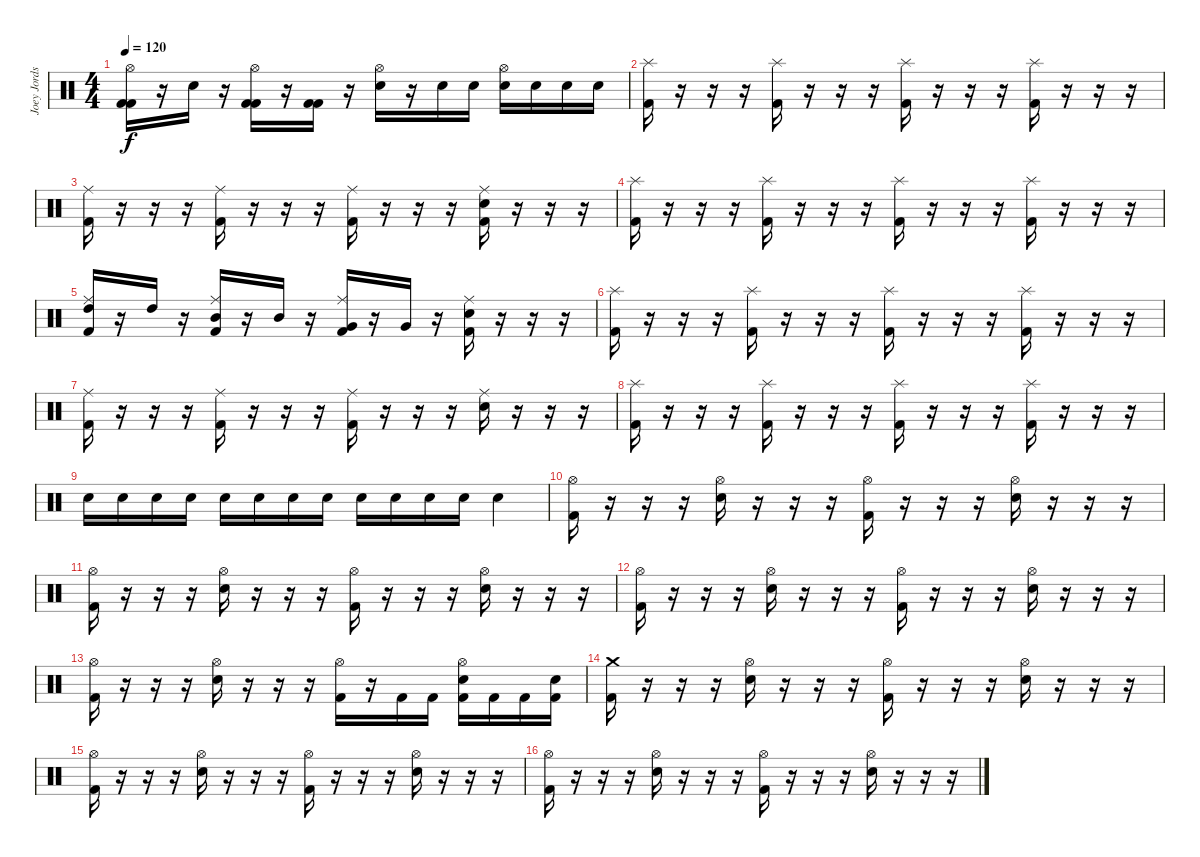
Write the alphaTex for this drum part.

\track ("Joey Jordson" "Joey Jords") {instrument percussion}
\staff {score}
\articulation defaults
\ts (4 4)
\tempo 120
\clef neutral
\ks c
("Hi-Hat (open)" "Kick (hit) 2" "Kick (hit) 2").16{dy f} r.16 "Electric Snare (hit)".16 r.16 ("Hi-Hat (open)" "Kick (hit) 2" "Kick (hit) 2").16 r.16 ("Kick (hit) 2" "Kick (hit) 2").16 r.16 ("Hi-Hat (open)" "Electric Snare (hit)").16 r.16 "Electric Snare (hit)".16 "Electric Snare (hit)".16 ("Hi-Hat (open)" "Electric Snare (hit)").16 "Electric Snare (hit)".16 "Electric Snare (hit)".16 "Electric Snare (hit)".16 |
("Splash (hit)" "Kick (hit) 2").16 r.16 r.16 r.16 ("Splash (hit)" "Kick (hit) 2").16 r.16 r.16 r.16 ("Splash (hit)" "Kick (hit) 2").16 r.16 r.16 r.16 ("Splash (hit)" "Kick (hit) 2").16 r.16 r.16 r.16 |
("Ride (middle)" "Kick (hit) 2").16 r.16 r.16 r.16 ("Ride (middle)" "Kick (hit) 2").16 r.16 r.16 r.16 ("Ride (middle)" "Kick (hit) 2").16 r.16 r.16 r.16 ("Ride (middle)" "Electric Snare (hit)" "Kick (hit) 2").16 r.16 r.16 r.16 |
("Splash (hit)" "Kick (hit) 2").16 r.16 r.16 r.16 ("Splash (hit)" "Kick (hit) 2").16 r.16 r.16 r.16 ("Splash (hit)" "Kick (hit) 2").16 r.16 r.16 r.16 ("Splash (hit)" "Kick (hit) 2").16 r.16 r.16 r.16 |
("Ride (middle)" "High Tom (hit)" "Kick (hit) 2").16 r.16 "High Tom (hit)".16 r.16 ("Ride (middle)" "Mid Tom (hit)" "Kick (hit) 2").16 r.16 "Mid Tom (hit)".16 r.16 ("Ride (middle)" "Very Low Tom (hit)" "Kick (hit) 2").16 r.16 "Very Low Tom (hit)".16 r.16 ("Ride (middle)" "Electric Snare (hit)" "Kick (hit) 2").16 r.16 r.16 r.16 |
("Splash (hit)" "Kick (hit) 2").16 r.16 r.16 r.16 ("Splash (hit)" "Kick (hit) 2").16 r.16 r.16 r.16 ("Splash (hit)" "Kick (hit) 2").16 r.16 r.16 r.16 ("Splash (hit)" "Kick (hit) 2").16 r.16 r.16 r.16 |
("Ride (middle)" "Kick (hit) 2").16 r.16 r.16 r.16 ("Ride (middle)" "Kick (hit) 2").16 r.16 r.16 r.16 ("Ride (middle)" "Kick (hit) 2").16 r.16 r.16 r.16 ("Ride (middle)" "Electric Snare (hit)").16 r.16 r.16 r.16 |
("Splash (hit)" "Kick (hit) 2").16 r.16 r.16 r.16 ("Splash (hit)" "Kick (hit) 2").16 r.16 r.16 r.16 ("Splash (hit)" "Kick (hit) 2").16 r.16 r.16 r.16 ("Splash (hit)" "Kick (hit) 2").16 r.16 r.16 r.16 |
"Electric Snare (hit)".16 "Electric Snare (hit)".16 "Electric Snare (hit)".16 "Electric Snare (hit)".16 "Electric Snare (hit)".16 "Electric Snare (hit)".16 "Electric Snare (hit)".16 "Electric Snare (hit)".16 "Electric Snare (hit)".16 "Electric Snare (hit)".16 "Electric Snare (hit)".16 "Electric Snare (hit)".16 "Electric Snare (hit)".4 |
("Hi-Hat (open)" "Kick (hit) 2").16 r.16 r.16 r.16 ("Hi-Hat (open)" "Electric Snare (hit)").16 r.16 r.16 r.16 ("Hi-Hat (open)" "Kick (hit) 2").16 r.16 r.16 r.16 ("Hi-Hat (open)" "Electric Snare (hit)").16 r.16 r.16 r.16 |
("Hi-Hat (open)" "Kick (hit) 2").16 r.16 r.16 r.16 ("Hi-Hat (open)" "Electric Snare (hit)").16 r.16 r.16 r.16 ("Hi-Hat (open)" "Kick (hit) 2").16 r.16 r.16 r.16 ("Hi-Hat (open)" "Electric Snare (hit)").16 r.16 r.16 r.16 |
("Hi-Hat (open)" "Kick (hit) 2").16 r.16 r.16 r.16 ("Hi-Hat (open)" "Electric Snare (hit)").16 r.16 r.16 r.16 ("Hi-Hat (open)" "Kick (hit) 2").16 r.16 r.16 r.16 ("Hi-Hat (open)" "Electric Snare (hit)").16 r.16 r.16 r.16 |
("Hi-Hat (open)" "Kick (hit) 2").16 r.16 r.16 r.16 ("Hi-Hat (open)" "Electric Snare (hit)").16 r.16 r.16 r.16 ("Hi-Hat (open)" "Kick (hit) 2").16 r.16 "Kick (hit) 2".16 "Kick (hit) 2".16 ("Hi-Hat (open)" "Electric Snare (hit)" "Kick (hit) 2").16 "Kick (hit) 2".16 "Kick (hit) 2".16 ("Electric Snare (hit)" "Kick (hit) 2").16 |
("Crash medium (hit)" "Kick (hit) 2").16 r.16 r.16 r.16 ("Hi-Hat (open)" "Electric Snare (hit)").16 r.16 r.16 r.16 ("Hi-Hat (open)" "Kick (hit) 2").16 r.16 r.16 r.16 ("Hi-Hat (open)" "Electric Snare (hit)").16 r.16 r.16 r.16 |
("Hi-Hat (open)" "Kick (hit) 2").16 r.16 r.16 r.16 ("Hi-Hat (open)" "Electric Snare (hit)").16 r.16 r.16 r.16 ("Hi-Hat (open)" "Kick (hit) 2").16 r.16 r.16 r.16 ("Hi-Hat (open)" "Electric Snare (hit)").16 r.16 r.16 r.16 |
("Hi-Hat (open)" "Kick (hit) 2").16 r.16 r.16 r.16 ("Hi-Hat (open)" "Electric Snare (hit)").16 r.16 r.16 r.16 ("Hi-Hat (open)" "Kick (hit) 2").16 r.16 r.16 r.16 ("Hi-Hat (open)" "Electric Snare (hit)").16 r.16 r.16 r.16
